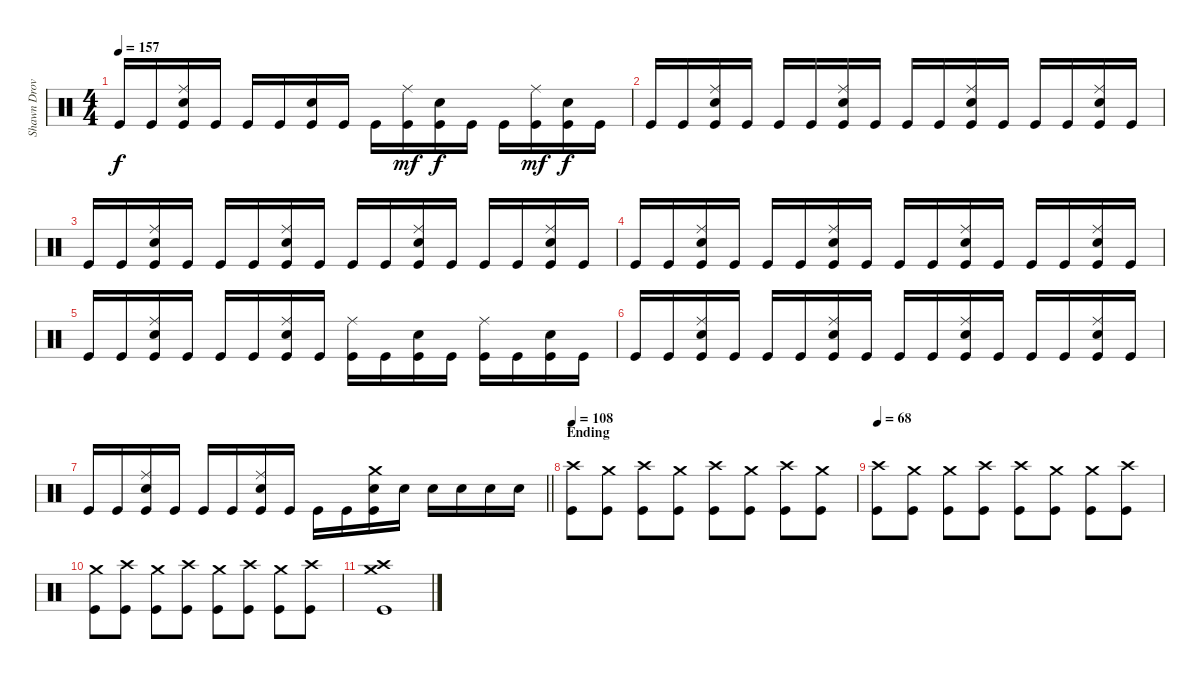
\track ("Shawn Drover" "Shawn Drov") {instrument percussion}
\staff {score}
\articulation defaults
\ts (4 4)
\tempo 157
\clef neutral
\ks c "Kick (hit)".16{dy f} "Kick (hit)".16
("Ride (middle)" "Snare (hit) 2" "Kick (hit)").16 "Kick (hit)".16 "Kick (hit)".16 "Kick (hit)".16 ("Snare (hit) 2" "Kick (hit)").16 "Kick (hit)".16 "Kick (hit)".16 ("Ride (middle)" "Kick (hit)").16{dy mf} ("Snare (hit) 2" "Kick (hit)").16{dy f} "Kick (hit)".16 "Kick (hit)".16 ("Ride (middle)" "Kick (hit)").16{dy mf} ("Snare (hit) 2" "Kick (hit)").16{dy f} "Kick (hit)".16 |
"Kick (hit)".16 "Kick (hit)".16 ("Ride (middle)" "Snare (hit) 2" "Kick (hit)").16 "Kick (hit)".16 "Kick (hit)".16 "Kick (hit)".16 ("Ride (middle)" "Snare (hit) 2" "Kick (hit)").16 "Kick (hit)".16 "Kick (hit)".16 "Kick (hit)".16 ("Ride (middle)" "Snare (hit) 2" "Kick (hit)").16 "Kick (hit)".16 "Kick (hit)".16 "Kick (hit)".16 ("Ride (middle)" "Snare (hit) 2" "Kick (hit)").16 "Kick (hit)".16 |
"Kick (hit)".16 "Kick (hit)".16 ("Ride (middle)" "Snare (hit) 2" "Kick (hit)").16 "Kick (hit)".16 "Kick (hit)".16 "Kick (hit)".16 ("Ride (middle)" "Snare (hit) 2" "Kick (hit)").16 "Kick (hit)".16 "Kick (hit)".16 "Kick (hit)".16 ("Ride (middle)" "Snare (hit) 2" "Kick (hit)").16 "Kick (hit)".16 "Kick (hit)".16 "Kick (hit)".16 ("Ride (middle)" "Snare (hit) 2" "Kick (hit)").16 "Kick (hit)".16 |
"Kick (hit)".16 "Kick (hit)".16 ("Ride (middle)" "Snare (hit) 2" "Kick (hit)").16 "Kick (hit)".16 "Kick (hit)".16 "Kick (hit)".16 ("Ride (middle)" "Snare (hit) 2" "Kick (hit)").16 "Kick (hit)".16 "Kick (hit)".16 "Kick (hit)".16 ("Ride (middle)" "Snare (hit) 2" "Kick (hit)").16 "Kick (hit)".16 "Kick (hit)".16 "Kick (hit)".16 ("Ride (middle)" "Snare (hit) 2" "Kick (hit)").16 "Kick (hit)".16 |
"Kick (hit)".16 "Kick (hit)".16 ("Ride (middle)" "Snare (hit) 2" "Kick (hit)").16 "Kick (hit)".16 "Kick (hit)".16 "Kick (hit)".16 ("Ride (middle)" "Snare (hit) 2" "Kick (hit)").16 "Kick (hit)".16 ("Ride (middle)" "Kick (hit)").16 "Kick (hit)".16 ("Snare (hit) 2" "Kick (hit)").16 "Kick (hit)".16 ("Ride (middle)" "Kick (hit)").16 "Kick (hit)".16 ("Snare (hit) 2" "Kick (hit)").16 "Kick (hit)".16 |
"Kick (hit)".16 "Kick (hit)".16 ("Ride (middle)" "Snare (hit) 2" "Kick (hit)").16 "Kick (hit)".16 "Kick (hit)".16 "Kick (hit)".16 ("Ride (middle)" "Snare (hit) 2" "Kick (hit)").16 "Kick (hit)".16 "Kick (hit)".16 "Kick (hit)".16 ("Ride (middle)" "Snare (hit) 2" "Kick (hit)").16 "Kick (hit)".16 "Kick (hit)".16 "Kick (hit)".16 ("Ride (middle)" "Snare (hit) 2" "Kick (hit)").16 "Kick (hit)".16 |
\barLineRight lightlight "Kick (hit)".16 "Kick (hit)".16
("Ride (middle)" "Snare (hit) 2" "Kick (hit)").16 "Kick (hit)".16 "Kick (hit)".16 "Kick (hit)".16 ("Ride (middle)" "Snare (hit) 2" "Kick (hit)").16 "Kick (hit)".16 "Kick (hit)".16 "Kick (hit)".16 ("Crash medium (hit)" "Snare (hit) 2" "Kick (hit)").16 "Snare (hit) 2".16 "Snare (hit) 2".16 "Snare (hit) 2".16 "Snare (hit) 2".16 "Snare (hit) 2".16 |
\section ("" "Ending")
\tempo 105
\tempo 108
("Crash high (hit)" "Kick (hit)").8 ("Crash medium (hit)" "Kick (hit)").8 ("Crash high (hit)" "Kick (hit)").8 ("Crash medium (hit)" "Kick (hit)").8 ("Crash high (hit)" "Kick (hit)").8 ("Crash medium (hit)" "Kick (hit)").8 ("Crash high (hit)" "Kick (hit)").8 ("Crash medium (hit)" "Kick (hit)").8 |
\tempo 68
("Crash high (hit)" "Kick (hit)").8 ("Crash medium (hit)" "Kick (hit)").8 ("Crash medium (hit)" "Kick (hit)").8 ("Crash high (hit)" "Kick (hit)").8 ("Crash high (hit)" "Kick (hit)").8 ("Crash medium (hit)" "Kick (hit)").8 ("Crash medium (hit)" "Kick (hit)").8 ("Crash high (hit)" "Kick (hit)").8 |
("Crash medium (hit)" "Kick (hit)").8 ("Crash high (hit)" "Kick (hit)").8 ("Crash medium (hit)" "Kick (hit)").8 ("Crash high (hit)" "Kick (hit)").8 ("Crash medium (hit)" "Kick (hit)").8 ("Crash high (hit)" "Kick (hit)").8 ("Crash medium (hit)" "Kick (hit)").8 ("Crash high (hit)" "Kick (hit)").8 |
("Crash high (hit)" "Crash medium (hit)" "Kick (hit)").1
